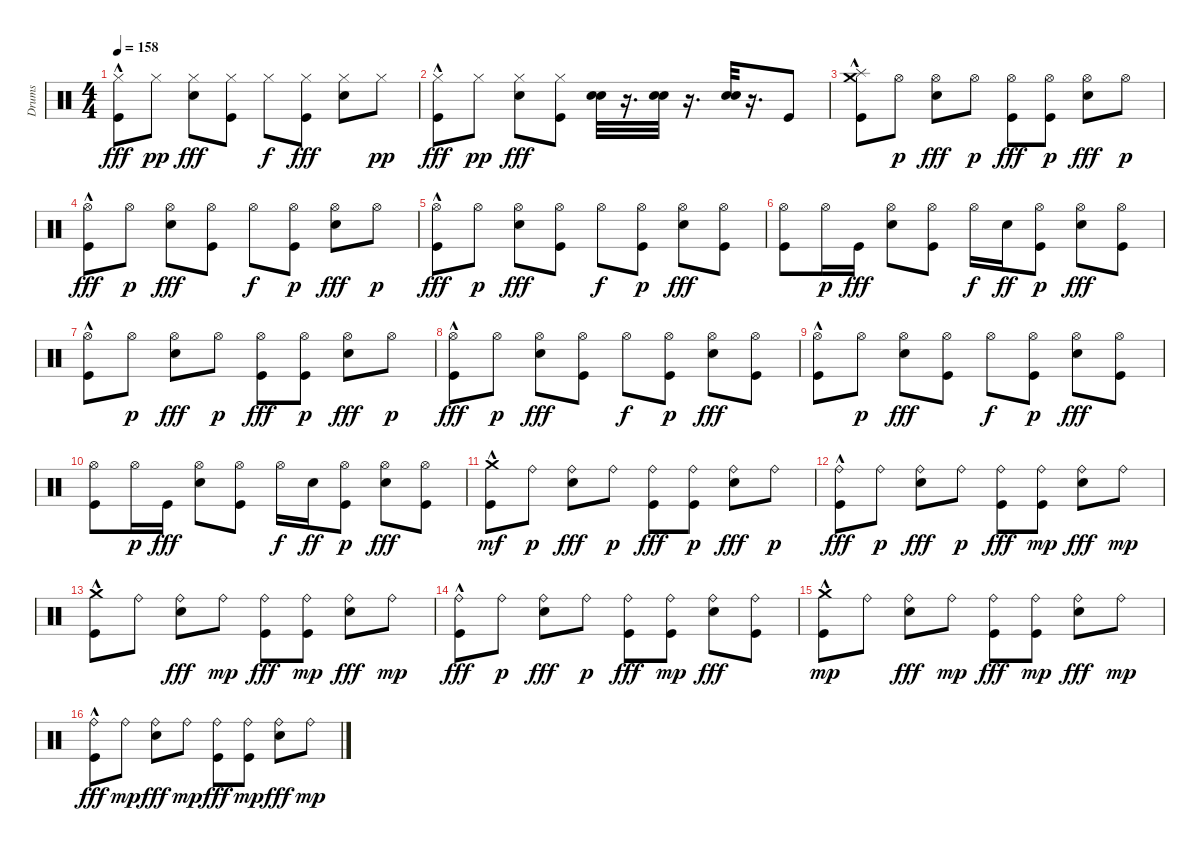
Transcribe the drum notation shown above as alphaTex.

\track ("Drums" "Drums") {instrument percussion}
\staff {score}
\articulation defaults
\ts (4 4)
\tempo 158
\clef neutral
\ks c
("Hi-Hat (closed)" "Kick (hit)"{hac}).8{dy fff} "Hi-Hat (closed)".8{dy pp} ("Electric Snare (hit)" "Hi-Hat (closed)").8{dy fff} ("Hi-Hat (closed)" "Kick (hit)").8 "Hi-Hat (closed)".8{dy f} ("Hi-Hat (closed)" "Kick (hit)").8{dy fff} ("Electric Snare (hit)" "Hi-Hat (closed)").8 "Hi-Hat (closed)".8{dy pp} |
("Hi-Hat (closed)" "Kick (hit)"{hac}).8{dy fff} "Hi-Hat (closed)".8{dy pp} ("Electric Snare (hit)" "Hi-Hat (closed)").8{dy fff} ("Hi-Hat (closed)" "Kick (hit)").8 ("Electric Snare (hit)" "Electric Snare (hit)").32 r.16{d} ("Electric Snare (hit)" "Electric Snare (hit)").32 r.16{d} ("Electric Snare (hit)" "Electric Snare (hit)").32 r.16{d} "Kick (hit)".8 |
("Kick (hit)"{hac} "Splash (hit)" "Crash medium (hit)").8 "Hi-Hat (open)".8{dy p} ("Electric Snare (hit)" "Hi-Hat (open)").8{dy fff} "Hi-Hat (open)".8{dy p} ("Kick (hit)" "Hi-Hat (open)").8{dy fff} ("Kick (hit)" "Hi-Hat (open)").8{dy p} ("Electric Snare (hit)" "Hi-Hat (open)").8{dy fff} "Hi-Hat (open)".8{dy p} |
("Kick (hit)"{hac} "Hi-Hat (open)").8{dy fff} "Hi-Hat (open)".8{dy p} ("Electric Snare (hit)" "Hi-Hat (open)").8{dy fff} ("Hi-Hat (open)" "Kick (hit)").8 "Hi-Hat (open)".8{dy f} ("Kick (hit)" "Hi-Hat (open)").8{dy p} ("Electric Snare (hit)" "Hi-Hat (open)").8{dy fff} "Hi-Hat (open)".8{dy p} |
("Kick (hit)"{hac} "Hi-Hat (open)").8{dy fff} "Hi-Hat (open)".8{dy p} ("Electric Snare (hit)" "Hi-Hat (open)").8{dy fff} ("Hi-Hat (open)" "Kick (hit)").8 "Hi-Hat (open)".8{dy f} ("Kick (hit)" "Hi-Hat (open)").8{dy p} ("Electric Snare (hit)" "Hi-Hat (open)").8{dy fff} ("Hi-Hat (open)" "Kick (hit)").8 |
("Hi-Hat (open)" "Kick (hit)").8 "Hi-Hat (open)".16{dy p} "Kick (hit)".16{dy fff} ("Electric Snare (hit)" "Hi-Hat (open)").8 ("Hi-Hat (open)" "Kick (hit)").8 "Hi-Hat (open)".16{dy f} "Electric Snare (hit)".16{dy ff} ("Kick (hit)" "Hi-Hat (open)").8{dy p} ("Electric Snare (hit)" "Hi-Hat (open)").8{dy fff} ("Hi-Hat (open)" "Kick (hit)").8 |
("Kick (hit)"{hac} "Hi-Hat (open)").8 "Hi-Hat (open)".8{dy p} ("Electric Snare (hit)" "Hi-Hat (open)").8{dy fff} "Hi-Hat (open)".8{dy p} ("Kick (hit)" "Hi-Hat (open)").8{dy fff} ("Kick (hit)" "Hi-Hat (open)").8{dy p} ("Electric Snare (hit)" "Hi-Hat (open)").8{dy fff} "Hi-Hat (open)".8{dy p} |
("Kick (hit)"{hac} "Hi-Hat (open)").8{dy fff} "Hi-Hat (open)".8{dy p} ("Electric Snare (hit)" "Hi-Hat (open)").8{dy fff} ("Hi-Hat (open)" "Kick (hit)").8 "Hi-Hat (open)".8{dy f} ("Kick (hit)" "Hi-Hat (open)").8{dy p} ("Electric Snare (hit)" "Hi-Hat (open)").8{dy fff} ("Hi-Hat (open)" "Kick (hit)").8 |
("Kick (hit)"{hac} "Hi-Hat (open)").8 "Hi-Hat (open)".8{dy p} ("Electric Snare (hit)" "Hi-Hat (open)").8{dy fff} ("Hi-Hat (open)" "Kick (hit)").8 "Hi-Hat (open)".8{dy f} ("Kick (hit)" "Hi-Hat (open)").8{dy p} ("Electric Snare (hit)" "Hi-Hat (open)").8{dy fff} ("Hi-Hat (open)" "Kick (hit)").8 |
("Hi-Hat (open)" "Kick (hit)").8 "Hi-Hat (open)".16{dy p} "Kick (hit)".16{dy fff} ("Electric Snare (hit)" "Hi-Hat (open)").8 ("Hi-Hat (open)" "Kick (hit)").8 "Hi-Hat (open)".16{dy f} "Electric Snare (hit)".16{dy ff} ("Kick (hit)" "Hi-Hat (open)").8{dy p} ("Electric Snare (hit)" "Hi-Hat (open)").8{dy fff} ("Hi-Hat (open)" "Kick (hit)").8 |
("Kick (hit)"{hac} "Crash medium (hit)").8{dy mf} "Ride (bell)".8{dy p} ("Electric Snare (hit)" "Ride (bell)").8{dy fff} "Ride (bell)".8{dy p} ("Kick (hit)" "Ride (bell)").8{dy fff} ("Kick (hit)" "Ride (bell)").8{dy p} ("Electric Snare (hit)" "Ride (bell)").8{dy fff} "Ride (bell)".8{dy p} |
("Kick (hit)"{hac} "Ride (bell)").8{dy fff} "Ride (bell)".8{dy p} ("Electric Snare (hit)" "Ride (bell)").8{dy fff} "Ride (bell)".8{dy p} ("Kick (hit)" "Ride (bell)").8{dy fff} ("Kick (hit)" "Ride (bell)").8{dy mp} ("Electric Snare (hit)" "Ride (bell)").8{dy fff} "Ride (bell)".8{dy mp} |
("Kick (hit)"{hac} "Crash medium (hit)").8 "Ride (bell)".8 ("Electric Snare (hit)" "Ride (bell)").8{dy fff} "Ride (bell)".8{dy mp} ("Kick (hit)" "Ride (bell)").8{dy fff} ("Kick (hit)" "Ride (bell)").8{dy mp} ("Electric Snare (hit)" "Ride (bell)").8{dy fff} "Ride (bell)".8{dy mp} |
("Kick (hit)"{hac} "Ride (bell)").8{dy fff} "Ride (bell)".8{dy p} ("Electric Snare (hit)" "Ride (bell)").8{dy fff} "Ride (bell)".8{dy p} ("Kick (hit)" "Ride (bell)").8{dy fff} ("Kick (hit)" "Ride (bell)").8{dy mp} ("Electric Snare (hit)" "Ride (bell)").8{dy fff} ("Ride (bell)" "Kick (hit)").8 |
("Kick (hit)"{hac} "Crash medium (hit)").8{dy mp} "Ride (bell)".8 ("Electric Snare (hit)" "Ride (bell)").8{dy fff} "Ride (bell)".8{dy mp} ("Kick (hit)" "Ride (bell)").8{dy fff} ("Kick (hit)" "Ride (bell)").8{dy mp} ("Electric Snare (hit)" "Ride (bell)").8{dy fff} "Ride (bell)".8{dy mp} |
("Kick (hit)"{hac} "Ride (bell)").8{dy fff} "Ride (bell)".8{dy mp} ("Electric Snare (hit)" "Ride (bell)").8{dy fff} "Ride (bell)".8{dy mp} ("Kick (hit)" "Ride (bell)").8{dy fff} ("Kick (hit)" "Ride (bell)").8{dy mp} ("Electric Snare (hit)" "Ride (bell)").8{dy fff} "Ride (bell)".8{dy mp}
